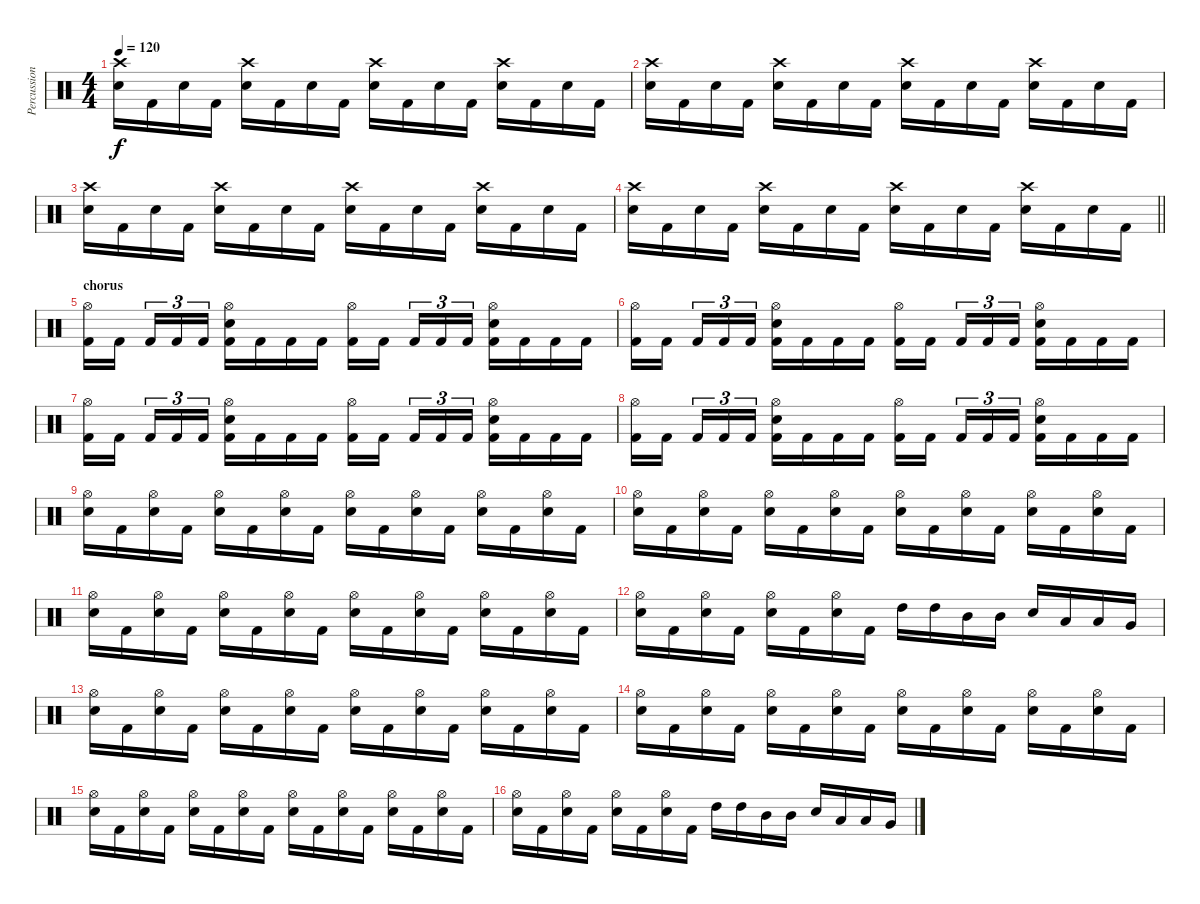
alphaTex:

\track ("Percussion" "Percussion") {instrument percussion}
\staff {score}
\articulation defaults
\ts (4 4)
\tempo 120
\clef neutral
\ks c
("Electric Snare (hit)" "Crash high (hit)").16{dy f} "Kick (hit) 2".16 "Electric Snare (hit)".16 "Kick (hit) 2".16 ("Electric Snare (hit)" "Crash high (hit)").16 "Kick (hit) 2".16 "Electric Snare (hit)".16 "Kick (hit) 2".16 ("Electric Snare (hit)" "Crash high (hit)").16 "Kick (hit) 2".16 "Electric Snare (hit)".16 "Kick (hit) 2".16 ("Electric Snare (hit)" "Crash high (hit)").16 "Kick (hit) 2".16 "Electric Snare (hit)".16 "Kick (hit) 2".16 |
("Electric Snare (hit)" "Crash high (hit)").16 "Kick (hit) 2".16 "Electric Snare (hit)".16 "Kick (hit) 2".16 ("Electric Snare (hit)" "Crash high (hit)").16 "Kick (hit) 2".16 "Electric Snare (hit)".16 "Kick (hit) 2".16 ("Electric Snare (hit)" "Crash high (hit)").16 "Kick (hit) 2".16 "Electric Snare (hit)".16 "Kick (hit) 2".16 ("Electric Snare (hit)" "Crash high (hit)").16 "Kick (hit) 2".16 "Electric Snare (hit)".16 "Kick (hit) 2".16 |
("Electric Snare (hit)" "Crash high (hit)").16 "Kick (hit) 2".16 "Electric Snare (hit)".16 "Kick (hit) 2".16 ("Electric Snare (hit)" "Crash high (hit)").16 "Kick (hit) 2".16 "Electric Snare (hit)".16 "Kick (hit) 2".16 ("Electric Snare (hit)" "Crash high (hit)").16 "Kick (hit) 2".16 "Electric Snare (hit)".16 "Kick (hit) 2".16 ("Electric Snare (hit)" "Crash high (hit)").16 "Kick (hit) 2".16 "Electric Snare (hit)".16 "Kick (hit) 2".16 |
\barLineRight lightlight
("Electric Snare (hit)" "Crash high (hit)").16 "Kick (hit) 2".16 "Electric Snare (hit)".16 "Kick (hit) 2".16 ("Electric Snare (hit)" "Crash high (hit)").16 "Kick (hit) 2".16 "Electric Snare (hit)".16 "Kick (hit) 2".16 ("Electric Snare (hit)" "Crash high (hit)").16 "Kick (hit) 2".16 "Electric Snare (hit)".16 "Kick (hit) 2".16 ("Electric Snare (hit)" "Crash high (hit)").16 "Kick (hit) 2".16 "Electric Snare (hit)".16 "Kick (hit) 2".16 |
\section ("" "chorus")
("Kick (hit) 2" "Hi-Hat (open)").16 "Kick (hit) 2".16{beam splitsecondary} "Kick (hit) 2".16{tu (3 2)} "Kick (hit) 2".16{tu (3 2)} "Kick (hit) 2".16{tu (3 2)} ("Kick (hit) 2" "Hi-Hat (open)" "Electric Snare (hit)").16 "Kick (hit) 2".16 "Kick (hit) 2".16 "Kick (hit) 2".16 ("Kick (hit) 2" "Hi-Hat (open)").16 "Kick (hit) 2".16{beam splitsecondary} "Kick (hit) 2".16{tu (3 2)} "Kick (hit) 2".16{tu (3 2)} "Kick (hit) 2".16{tu (3 2)} ("Kick (hit) 2" "Hi-Hat (open)" "Electric Snare (hit)").16 "Kick (hit) 2".16 "Kick (hit) 2".16 "Kick (hit) 2".16 |
("Kick (hit) 2" "Hi-Hat (open)").16 "Kick (hit) 2".16{beam splitsecondary} "Kick (hit) 2".16{tu (3 2)} "Kick (hit) 2".16{tu (3 2)} "Kick (hit) 2".16{tu (3 2)} ("Kick (hit) 2" "Hi-Hat (open)" "Electric Snare (hit)").16 "Kick (hit) 2".16 "Kick (hit) 2".16 "Kick (hit) 2".16 ("Kick (hit) 2" "Hi-Hat (open)").16 "Kick (hit) 2".16{beam splitsecondary} "Kick (hit) 2".16{tu (3 2)} "Kick (hit) 2".16{tu (3 2)} "Kick (hit) 2".16{tu (3 2)} ("Kick (hit) 2" "Hi-Hat (open)" "Electric Snare (hit)").16 "Kick (hit) 2".16 "Kick (hit) 2".16 "Kick (hit) 2".16 |
("Kick (hit) 2" "Hi-Hat (open)").16 "Kick (hit) 2".16{beam splitsecondary} "Kick (hit) 2".16{tu (3 2)} "Kick (hit) 2".16{tu (3 2)} "Kick (hit) 2".16{tu (3 2)} ("Kick (hit) 2" "Hi-Hat (open)" "Electric Snare (hit)").16 "Kick (hit) 2".16 "Kick (hit) 2".16 "Kick (hit) 2".16 ("Kick (hit) 2" "Hi-Hat (open)").16 "Kick (hit) 2".16{beam splitsecondary} "Kick (hit) 2".16{tu (3 2)} "Kick (hit) 2".16{tu (3 2)} "Kick (hit) 2".16{tu (3 2)} ("Kick (hit) 2" "Hi-Hat (open)" "Electric Snare (hit)").16 "Kick (hit) 2".16 "Kick (hit) 2".16 "Kick (hit) 2".16 |
("Kick (hit) 2" "Hi-Hat (open)").16 "Kick (hit) 2".16{beam splitsecondary} "Kick (hit) 2".16{tu (3 2)} "Kick (hit) 2".16{tu (3 2)} "Kick (hit) 2".16{tu (3 2)} ("Kick (hit) 2" "Hi-Hat (open)" "Electric Snare (hit)").16 "Kick (hit) 2".16 "Kick (hit) 2".16 "Kick (hit) 2".16 ("Kick (hit) 2" "Hi-Hat (open)").16 "Kick (hit) 2".16{beam splitsecondary} "Kick (hit) 2".16{tu (3 2)} "Kick (hit) 2".16{tu (3 2)} "Kick (hit) 2".16{tu (3 2)} ("Kick (hit) 2" "Hi-Hat (open)" "Electric Snare (hit)").16 "Kick (hit) 2".16 "Kick (hit) 2".16 "Kick (hit) 2".16 |
("Electric Snare (hit)" "Hi-Hat (open)").16 "Kick (hit) 2".16 ("Electric Snare (hit)" "Hi-Hat (open)").16 "Kick (hit) 2".16 ("Electric Snare (hit)" "Hi-Hat (open)").16 "Kick (hit) 2".16 ("Electric Snare (hit)" "Hi-Hat (open)").16 "Kick (hit) 2".16 ("Electric Snare (hit)" "Hi-Hat (open)").16 "Kick (hit) 2".16 ("Electric Snare (hit)" "Hi-Hat (open)").16 "Kick (hit) 2".16 ("Electric Snare (hit)" "Hi-Hat (open)").16 "Kick (hit) 2".16 ("Electric Snare (hit)" "Hi-Hat (open)").16 "Kick (hit) 2".16 |
("Electric Snare (hit)" "Hi-Hat (open)").16 "Kick (hit) 2".16 ("Electric Snare (hit)" "Hi-Hat (open)").16 "Kick (hit) 2".16 ("Electric Snare (hit)" "Hi-Hat (open)").16 "Kick (hit) 2".16 ("Electric Snare (hit)" "Hi-Hat (open)").16 "Kick (hit) 2".16 ("Electric Snare (hit)" "Hi-Hat (open)").16 "Kick (hit) 2".16 ("Electric Snare (hit)" "Hi-Hat (open)").16 "Kick (hit) 2".16 ("Electric Snare (hit)" "Hi-Hat (open)").16 "Kick (hit) 2".16 ("Electric Snare (hit)" "Hi-Hat (open)").16 "Kick (hit) 2".16 |
("Electric Snare (hit)" "Hi-Hat (open)").16 "Kick (hit) 2".16 ("Electric Snare (hit)" "Hi-Hat (open)").16 "Kick (hit) 2".16 ("Electric Snare (hit)" "Hi-Hat (open)").16 "Kick (hit) 2".16 ("Electric Snare (hit)" "Hi-Hat (open)").16 "Kick (hit) 2".16 ("Electric Snare (hit)" "Hi-Hat (open)").16 "Kick (hit) 2".16 ("Electric Snare (hit)" "Hi-Hat (open)").16 "Kick (hit) 2".16 ("Electric Snare (hit)" "Hi-Hat (open)").16 "Kick (hit) 2".16 ("Electric Snare (hit)" "Hi-Hat (open)").16 "Kick (hit) 2".16 |
("Electric Snare (hit)" "Hi-Hat (open)").16 "Kick (hit) 2".16 ("Electric Snare (hit)" "Hi-Hat (open)").16 "Kick (hit) 2".16 ("Electric Snare (hit)" "Hi-Hat (open)").16 "Kick (hit) 2".16 ("Electric Snare (hit)" "Hi-Hat (open)").16 "Kick (hit) 2".16 "High Tom (hit)".16 "High Tom (hit)".16 "Mid Tom (hit)".16 "Mid Tom (hit)".16 "Electric Snare (hit)".16 "Low Tom (hit)".16 "Low Tom (hit)".16 "Very Low Tom (hit)".16 |
("Electric Snare (hit)" "Hi-Hat (open)").16 "Kick (hit) 2".16 ("Electric Snare (hit)" "Hi-Hat (open)").16 "Kick (hit) 2".16 ("Electric Snare (hit)" "Hi-Hat (open)").16 "Kick (hit) 2".16 ("Electric Snare (hit)" "Hi-Hat (open)").16 "Kick (hit) 2".16 ("Electric Snare (hit)" "Hi-Hat (open)").16 "Kick (hit) 2".16 ("Electric Snare (hit)" "Hi-Hat (open)").16 "Kick (hit) 2".16 ("Electric Snare (hit)" "Hi-Hat (open)").16 "Kick (hit) 2".16 ("Electric Snare (hit)" "Hi-Hat (open)").16 "Kick (hit) 2".16 |
("Electric Snare (hit)" "Hi-Hat (open)").16 "Kick (hit) 2".16 ("Electric Snare (hit)" "Hi-Hat (open)").16 "Kick (hit) 2".16 ("Electric Snare (hit)" "Hi-Hat (open)").16 "Kick (hit) 2".16 ("Electric Snare (hit)" "Hi-Hat (open)").16 "Kick (hit) 2".16 ("Electric Snare (hit)" "Hi-Hat (open)").16 "Kick (hit) 2".16 ("Electric Snare (hit)" "Hi-Hat (open)").16 "Kick (hit) 2".16 ("Electric Snare (hit)" "Hi-Hat (open)").16 "Kick (hit) 2".16 ("Electric Snare (hit)" "Hi-Hat (open)").16 "Kick (hit) 2".16 |
("Electric Snare (hit)" "Hi-Hat (open)").16 "Kick (hit) 2".16 ("Electric Snare (hit)" "Hi-Hat (open)").16 "Kick (hit) 2".16 ("Electric Snare (hit)" "Hi-Hat (open)").16 "Kick (hit) 2".16 ("Electric Snare (hit)" "Hi-Hat (open)").16 "Kick (hit) 2".16 ("Electric Snare (hit)" "Hi-Hat (open)").16 "Kick (hit) 2".16 ("Electric Snare (hit)" "Hi-Hat (open)").16 "Kick (hit) 2".16 ("Electric Snare (hit)" "Hi-Hat (open)").16 "Kick (hit) 2".16 ("Electric Snare (hit)" "Hi-Hat (open)").16 "Kick (hit) 2".16 |
("Electric Snare (hit)" "Hi-Hat (open)").16 "Kick (hit) 2".16 ("Electric Snare (hit)" "Hi-Hat (open)").16 "Kick (hit) 2".16 ("Electric Snare (hit)" "Hi-Hat (open)").16 "Kick (hit) 2".16 ("Electric Snare (hit)" "Hi-Hat (open)").16 "Kick (hit) 2".16 "High Tom (hit)".16 "High Tom (hit)".16 "Mid Tom (hit)".16 "Mid Tom (hit)".16 "Electric Snare (hit)".16 "Low Tom (hit)".16 "Low Tom (hit)".16 "Very Low Tom (hit)".16
